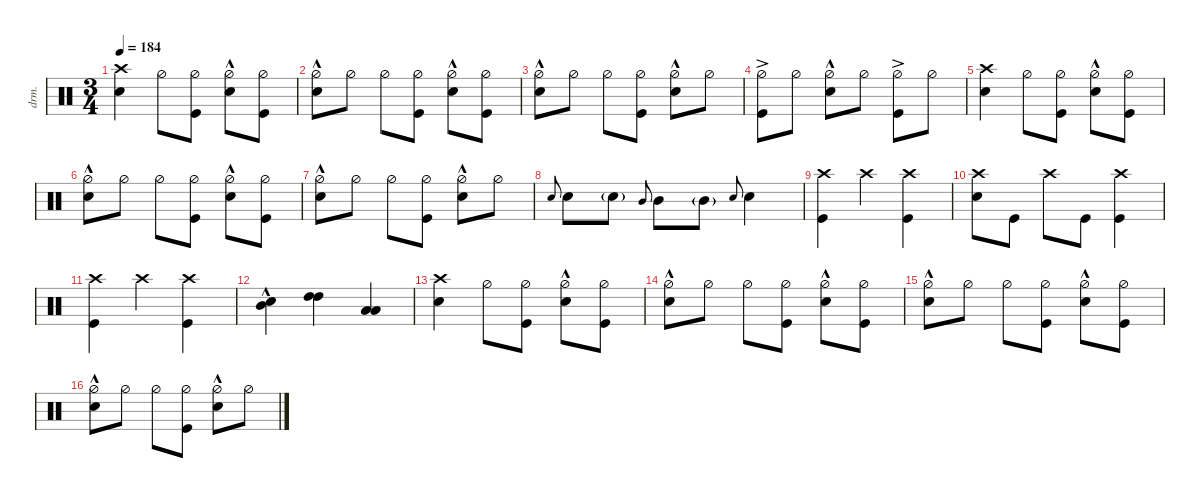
\defaultSystemsLayout 4
\hideDynamics
\bracketExtendMode nobrackets
\otherSystemsTrackNameOrientation horizontal
\track ("Drums" "drm.") {defaultSystemsLayout 4 multiBarRest instrument percussion}
\staff {score}
\articulation defaults
\ts (3 4)
\tempo 184
\clef neutral
\ks c
("Snare (hit) 2" "Crash high (hit)").4{dy f} "Hi-Hat (half)".8 ("Hi-Hat (half)" "Kick (hit)").8 ("Hi-Hat (half)"{hac} "Snare (hit) 2").8 ("Hi-Hat (half)" "Kick (hit)").8 |
("Hi-Hat (half)"{hac} "Snare (hit) 2").8 "Hi-Hat (half)".8 "Hi-Hat (half)".8 ("Hi-Hat (half)" "Kick (hit)").8 ("Hi-Hat (half)"{hac} "Snare (hit) 2").8 ("Hi-Hat (half)" "Kick (hit)").8 |
("Hi-Hat (half)"{hac} "Snare (hit) 2").8 "Hi-Hat (half)".8 "Hi-Hat (half)".8 ("Hi-Hat (half)" "Kick (hit)").8 ("Hi-Hat (half)"{hac} "Snare (hit) 2").8 "Hi-Hat (half)".8 |
("Hi-Hat (half)"{ac} "Kick (hit)").8 "Hi-Hat (half)".8 ("Hi-Hat (half)"{hac} "Snare (hit) 2").8 "Hi-Hat (half)".8 ("Hi-Hat (half)"{ac} "Kick (hit)").8 "Hi-Hat (half)".8 |
("Snare (hit) 2" "Crash high (hit)").4 "Hi-Hat (half)".8 ("Hi-Hat (half)" "Kick (hit)").8 ("Hi-Hat (half)"{hac} "Snare (hit) 2").8 ("Hi-Hat (half)" "Kick (hit)").8 |
("Hi-Hat (half)"{hac} "Snare (hit) 2").8 "Hi-Hat (half)".8 "Hi-Hat (half)".8 ("Hi-Hat (half)" "Kick (hit)").8 ("Hi-Hat (half)"{hac} "Snare (hit) 2").8 ("Hi-Hat (half)" "Kick (hit)").8 |
("Hi-Hat (half)"{hac} "Snare (hit) 2").8 "Hi-Hat (half)".8 "Hi-Hat (half)".8 ("Hi-Hat (half)" "Kick (hit)").8 ("Hi-Hat (half)"{hac} "Snare (hit) 2").8 "Hi-Hat (half)".8 |
"Snare (hit) 2".8{gr onbeat} "Snare (hit) 2".8 "Snare (hit) 2"{g}.8{dy mf} "Mid Tom (hit)".8{gr onbeat dy ff} "Mid Tom (hit)".8 "Mid Tom (hit)"{g}.8{dy f} "Snare (hit) 2".8{gr onbeat} "Snare (hit) 2".4 |
("Crash high (hit)" "Kick (hit)").4 "Crash high (hit)".4 ("Kick (hit)" "Crash high (hit)").4 |
("Crash high (hit)" "Snare (hit) 2").8 "Kick (hit)".8 "Crash high (hit)".8 "Kick (hit)".8 ("Kick (hit)" "Crash high (hit)").4 |
("Crash high (hit)" "Kick (hit)").4 "Crash high (hit)".4 ("Kick (hit)" "Crash high (hit)").4 |
("Snare (hit) 2" "Mid Tom (hit)"{hac}).4 ("High Tom (hit)" "High Tom (hit)").4{dy ff} ("Low Tom (hit)" "Low Tom (hit)").4 |
("Snare (hit) 2" "Crash high (hit)").4{dy f} "Hi-Hat (half)".8 ("Hi-Hat (half)" "Kick (hit)").8 ("Hi-Hat (half)"{hac} "Snare (hit) 2").8 ("Hi-Hat (half)" "Kick (hit)").8 |
("Hi-Hat (half)"{hac} "Snare (hit) 2").8 "Hi-Hat (half)".8 "Hi-Hat (half)".8 ("Hi-Hat (half)" "Kick (hit)").8 ("Hi-Hat (half)"{hac} "Snare (hit) 2").8 ("Hi-Hat (half)" "Kick (hit)").8 |
("Hi-Hat (half)"{hac} "Snare (hit) 2").8 "Hi-Hat (half)".8 "Hi-Hat (half)".8 ("Hi-Hat (half)" "Kick (hit)").8 ("Hi-Hat (half)"{hac} "Snare (hit) 2").8 ("Hi-Hat (half)" "Kick (hit)").8 |
("Hi-Hat (half)"{hac} "Snare (hit) 2").8 "Hi-Hat (half)".8 "Hi-Hat (half)".8 ("Hi-Hat (half)" "Kick (hit)").8 ("Hi-Hat (half)"{hac} "Snare (hit) 2").8 "Hi-Hat (half)".8
